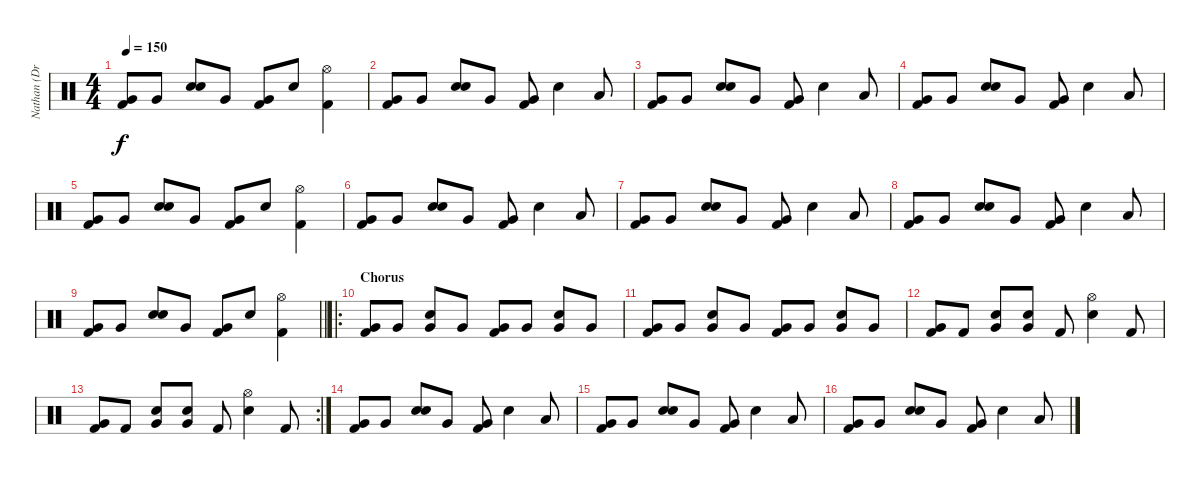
\track ("Nathan (Drums)" "Nathan (Dr") {instrument percussion}
\staff {score}
\articulation defaults
\ts (4 4)
\tempo 150
\clef neutral
\ks c
("Very Low Tom (hit)" "Kick (hit) 2").8{dy f} "Very Low Tom (hit)".8 ("Electric Snare (hit)" "Electric Snare (hit)").8 "Very Low Tom (hit)".8 ("Very Low Tom (hit)" "Kick (hit) 2").8 "Electric Snare (hit)".8 ("Hi-Hat (open)" "Kick (hit) 2").4 |
("Very Low Tom (hit)" "Kick (hit) 2").8 "Very Low Tom (hit)".8 ("Electric Snare (hit)" "Electric Snare (hit)").8 "Very Low Tom (hit)".8 ("Very Low Tom (hit)" "Kick (hit) 2").8 "Electric Snare (hit)".4 "Low Tom (hit)".8 |
("Very Low Tom (hit)" "Kick (hit) 2").8 "Very Low Tom (hit)".8 ("Electric Snare (hit)" "Electric Snare (hit)").8 "Very Low Tom (hit)".8 ("Very Low Tom (hit)" "Kick (hit) 2").8 "Electric Snare (hit)".4 "Low Tom (hit)".8 |
("Very Low Tom (hit)" "Kick (hit) 2").8 "Very Low Tom (hit)".8 ("Electric Snare (hit)" "Electric Snare (hit)").8 "Very Low Tom (hit)".8 ("Very Low Tom (hit)" "Kick (hit) 2").8 "Electric Snare (hit)".4 "Low Tom (hit)".8 |
("Very Low Tom (hit)" "Kick (hit) 2").8 "Very Low Tom (hit)".8 ("Electric Snare (hit)" "Electric Snare (hit)").8 "Very Low Tom (hit)".8 ("Very Low Tom (hit)" "Kick (hit) 2").8 "Electric Snare (hit)".8 ("Hi-Hat (open)" "Kick (hit) 2").4 |
("Very Low Tom (hit)" "Kick (hit) 2").8 "Very Low Tom (hit)".8 ("Electric Snare (hit)" "Electric Snare (hit)").8 "Very Low Tom (hit)".8 ("Very Low Tom (hit)" "Kick (hit) 2").8 "Electric Snare (hit)".4 "Low Tom (hit)".8 |
("Very Low Tom (hit)" "Kick (hit) 2").8 "Very Low Tom (hit)".8 ("Electric Snare (hit)" "Electric Snare (hit)").8 "Very Low Tom (hit)".8 ("Very Low Tom (hit)" "Kick (hit) 2").8 "Electric Snare (hit)".4 "Low Tom (hit)".8 |
("Very Low Tom (hit)" "Kick (hit) 2").8 "Very Low Tom (hit)".8 ("Electric Snare (hit)" "Electric Snare (hit)").8 "Very Low Tom (hit)".8 ("Very Low Tom (hit)" "Kick (hit) 2").8 "Electric Snare (hit)".4 "Low Tom (hit)".8 |
\barLineRight lightlight
("Very Low Tom (hit)" "Kick (hit) 2").8 "Very Low Tom (hit)".8 ("Electric Snare (hit)" "Electric Snare (hit)").8 "Very Low Tom (hit)".8 ("Very Low Tom (hit)" "Kick (hit) 2").8 "Electric Snare (hit)".8 ("Hi-Hat (open)" "Kick (hit) 2").4 |
\ro
\section ("" "Chorus")
("Very Low Tom (hit)" "Kick (hit) 2").8 "Very Low Tom (hit)".8 ("Very Low Tom (hit)" "Electric Snare (hit)").8 "Very Low Tom (hit)".8 ("Very Low Tom (hit)" "Kick (hit) 2").8 "Very Low Tom (hit)".8 ("Very Low Tom (hit)" "Electric Snare (hit)").8 "Very Low Tom (hit)".8 |
("Very Low Tom (hit)" "Kick (hit) 2").8 "Very Low Tom (hit)".8 ("Very Low Tom (hit)" "Electric Snare (hit)").8 "Very Low Tom (hit)".8 ("Very Low Tom (hit)" "Kick (hit) 2").8 "Very Low Tom (hit)".8 ("Very Low Tom (hit)" "Electric Snare (hit)").8 "Very Low Tom (hit)".8 |
("Very Low Tom (hit)" "Kick (hit) 2").8 "Kick (hit) 2".8 ("Very Low Tom (hit)" "Electric Snare (hit)").8 ("Very Low Tom (hit)" "Electric Snare (hit)").8 "Kick (hit) 2".8 ("Hi-Hat (open)" "Electric Snare (hit)").4 "Kick (hit) 2".8 |
\rc 2
("Very Low Tom (hit)" "Kick (hit) 2").8 "Kick (hit) 2".8 ("Very Low Tom (hit)" "Electric Snare (hit)").8 ("Very Low Tom (hit)" "Electric Snare (hit)").8 "Kick (hit) 2".8 ("Hi-Hat (open)" "Electric Snare (hit)").4 "Kick (hit) 2".8 |
("Very Low Tom (hit)" "Kick (hit) 2").8 "Very Low Tom (hit)".8 ("Electric Snare (hit)" "Electric Snare (hit)").8 "Very Low Tom (hit)".8 ("Very Low Tom (hit)" "Kick (hit) 2").8 "Electric Snare (hit)".4 "Low Tom (hit)".8 |
("Very Low Tom (hit)" "Kick (hit) 2").8 "Very Low Tom (hit)".8 ("Electric Snare (hit)" "Electric Snare (hit)").8 "Very Low Tom (hit)".8 ("Very Low Tom (hit)" "Kick (hit) 2").8 "Electric Snare (hit)".4 "Low Tom (hit)".8 |
("Very Low Tom (hit)" "Kick (hit) 2").8 "Very Low Tom (hit)".8 ("Electric Snare (hit)" "Electric Snare (hit)").8 "Very Low Tom (hit)".8 ("Very Low Tom (hit)" "Kick (hit) 2").8 "Electric Snare (hit)".4 "Low Tom (hit)".8
